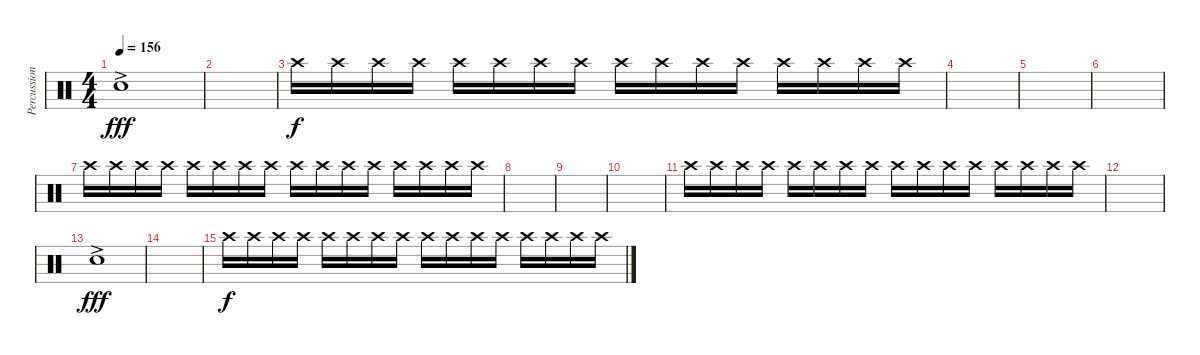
\track ("Percussion" "Percussion") {instrument percussion}
\staff {score}
\articulation defaults
\ts (4 4)
\tempo 156
\clef neutral
\ks c "Hand Clap (hit)"{ac}.1{dy fff volume 16}
|
|
"Crash high (hit)".16{dy f volume 6} "Crash high (hit)".16 "Crash high (hit)".16 "Crash high (hit)".16 "Crash high (hit)".16 "Crash high (hit)".16 "Crash high (hit)".16 "Crash high (hit)".16 "Crash high (hit)".16 "Crash high (hit)".16 "Crash high (hit)".16 "Crash high (hit)".16 "Crash high (hit)".16 "Crash high (hit)".16 "Crash high (hit)".16 "Crash high (hit)".16 |
|
|
|
"Crash high (hit)".16 "Crash high (hit)".16 "Crash high (hit)".16 "Crash high (hit)".16 "Crash high (hit)".16 "Crash high (hit)".16 "Crash high (hit)".16 "Crash high (hit)".16 "Crash high (hit)".16 "Crash high (hit)".16 "Crash high (hit)".16 "Crash high (hit)".16 "Crash high (hit)".16 "Crash high (hit)".16 "Crash high (hit)".16 "Crash high (hit)".16 |
|
|
|
"Crash high (hit)".16{volume 6} "Crash high (hit)".16 "Crash high (hit)".16 "Crash high (hit)".16 "Crash high (hit)".16 "Crash high (hit)".16 "Crash high (hit)".16 "Crash high (hit)".16 "Crash high (hit)".16 "Crash high (hit)".16 "Crash high (hit)".16 "Crash high (hit)".16 "Crash high (hit)".16 "Crash high (hit)".16 "Crash high (hit)".16 "Crash high (hit)".16 |
|
"Hand Clap (hit)"{ac}.1{dy fff volume 16} |
|
"Crash high (hit)".16{dy f volume 6} "Crash high (hit)".16 "Crash high (hit)".16 "Crash high (hit)".16 "Crash high (hit)".16 "Crash high (hit)".16 "Crash high (hit)".16 "Crash high (hit)".16 "Crash high (hit)".16 "Crash high (hit)".16 "Crash high (hit)".16 "Crash high (hit)".16 "Crash high (hit)".16 "Crash high (hit)".16 "Crash high (hit)".16 "Crash high (hit)".16
